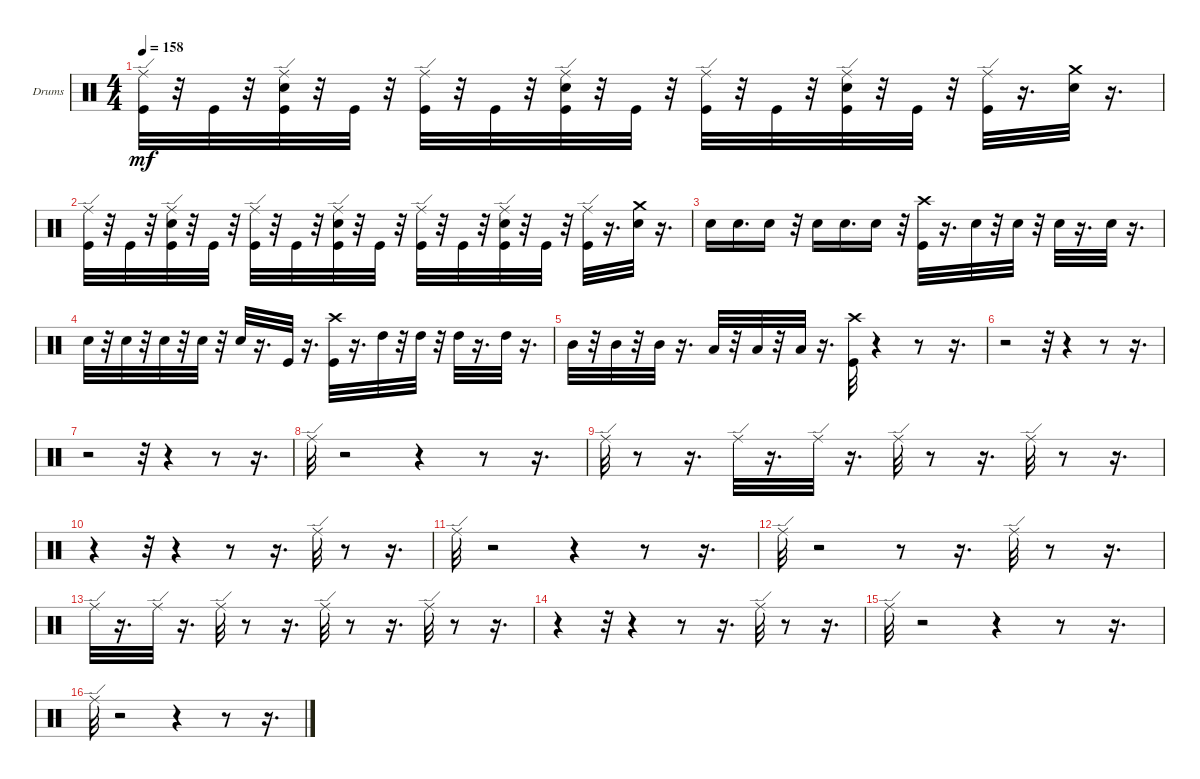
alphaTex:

\bracketExtendMode groupsimilarinstruments
\firstSystemTrackNameOrientation horizontal
\otherSystemsTrackNameOrientation horizontal
\track ("" "Drums") {instrument percussion}
\staff {score}
\articulation defaults
\ts (4 4)
\tempo 158
\clef neutral
\ks c
("Ride (edge)" "Kick (hit)").32{dy mf} r.32 "Kick (hit)".32 r.32 ("Ride (edge)" "Snare (hit) 2" "Kick (hit)").32 r.32 "Kick (hit)".32 r.32 ("Ride (edge)" "Kick (hit)").32 r.32 "Kick (hit)".32 r.32 ("Ride (edge)" "Snare (hit) 2" "Kick (hit)").32 r.32 "Kick (hit)".32 r.32 ("Ride (edge)" "Kick (hit)").32 r.32 "Kick (hit)".32 r.32 ("Ride (edge)" "Snare (hit) 2" "Kick (hit)").32 r.32 "Kick (hit)".32 r.32 ("Ride (edge)" "Kick (hit)").32 r.16{d} ("Crash medium (hit)" "Snare (hit) 2").32 r.16{d} |
("Ride (edge)" "Kick (hit)").32 r.32 "Kick (hit)".32 r.32 ("Ride (edge)" "Snare (hit) 2" "Kick (hit)").32 r.32 "Kick (hit)".32 r.32 ("Ride (edge)" "Kick (hit)").32 r.32 "Kick (hit)".32 r.32 ("Ride (edge)" "Snare (hit) 2" "Kick (hit)").32 r.32 "Kick (hit)".32 r.32 ("Ride (edge)" "Kick (hit)").32 r.32 "Kick (hit)".32 r.32 ("Ride (edge)" "Snare (hit) 2" "Kick (hit)").32 r.32 "Kick (hit)".32 r.32 ("Ride (edge)" "Kick (hit)").32 r.16{d} ("Crash medium (hit)" "Snare (hit) 2").32 r.16{d} |
"Snare (hit) 2".16 "Snare (hit) 2".16{d} "Snare (hit) 2".16 r.32 "Snare (hit) 2".16 "Snare (hit) 2".16{d} "Snare (hit) 2".16 r.32 ("Crash high (hit)" "Kick (hit)").32 r.16{d} "Snare (hit) 2".32 r.32 "Snare (hit) 2".32 r.32 "Snare (hit) 2".32 r.16{d} "Snare (hit) 2".32 r.16{d} |
"Snare (hit) 2".32 r.32 "Snare (hit) 2".32 r.32 "Snare (hit) 2".32 r.32 "Snare (hit) 2".32 r.32 "Snare (hit) 2".32 r.16{d} "Kick (hit)".32 r.16{d} ("Crash high (hit)" "Kick (hit)").32 r.16{d} "High Tom (hit)".32 r.32 "High Tom (hit)".32 r.32 "High Tom (hit)".32 r.16{d} "High Tom (hit)".32 r.16{d} |
"Mid Tom (hit)".32 r.32 "Mid Tom (hit)".32 r.32 "Mid Tom (hit)".32 r.16{d} "Low Tom (hit)".32 r.32 "Low Tom (hit)".32 r.32 "Low Tom (hit)".32 r.16{d} ("Crash high (hit)" "Kick (hit)").32 r.4 r.8 r.16{d} |
r.2 r.32 r.4 r.8 r.16{d} |
r.2 r.32 r.4 r.8 r.16{d} |
"Ride (edge)".32 r.2 r.4 r.8 r.16{d} |
"Ride (edge)".32 r.8 r.16{d} "Ride (edge)".32 r.16{d} "Ride (edge)".32 r.16{d} "Ride (edge)".32 r.8 r.16{d} "Ride (edge)".32 r.8 r.16{d} |
r.4 r.32 r.4 r.8 r.16{d} "Ride (edge)".32 r.8 r.16{d} |
"Ride (edge)".32 r.2 r.4 r.8 r.16{d} |
"Ride (edge)".32 r.2 r.8 r.16{d} "Ride (edge)".32 r.8 r.16{d} |
"Ride (edge)".32 r.16{d} "Ride (edge)".32 r.16{d} "Ride (edge)".32 r.8 r.16{d} "Ride (edge)".32 r.8 r.16{d} "Ride (edge)".32 r.8 r.16{d} |
r.4 r.32 r.4 r.8 r.16{d} "Ride (edge)".32 r.8 r.16{d} |
"Ride (edge)".32 r.2 r.4 r.8 r.16{d} |
"Ride (edge)".32 r.2 r.4 r.8 r.16{d}
